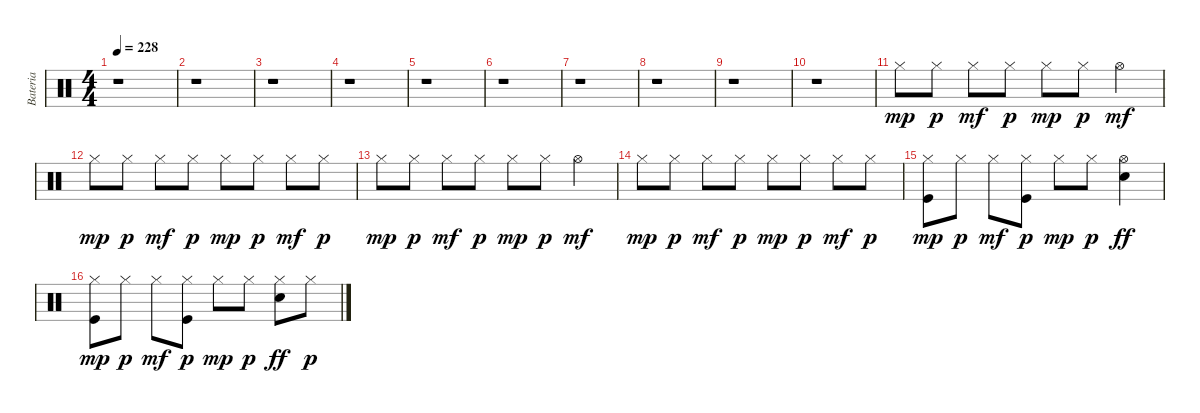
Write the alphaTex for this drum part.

\track ("Bateria" "Bateria") {instrument percussion}
\staff {score}
\articulation defaults
\ts (4 4)
\tempo 228
\clef neutral
\ks c
r.1{dy mp} |
r.1 |
r.1 |
r.1 |
r.1 |
r.1 |
r.1 |
r.1 |
r.1 |
r.1 |
"Hi-Hat (closed)".8{volume 12 balance 8} "Hi-Hat (closed)".8{dy p} "Hi-Hat (closed)".8{dy mf} "Hi-Hat (closed)".8{dy p} "Hi-Hat (closed)".8{dy mp} "Hi-Hat (closed)".8{dy p} "Hi-Hat (open)".4{dy mf} |
"Hi-Hat (closed)".8{dy mp} "Hi-Hat (closed)".8{dy p} "Hi-Hat (closed)".8{dy mf} "Hi-Hat (closed)".8{dy p} "Hi-Hat (closed)".8{dy mp} "Hi-Hat (closed)".8{dy p} "Hi-Hat (closed)".8{dy mf} "Hi-Hat (closed)".8{dy p} |
"Hi-Hat (closed)".8{dy mp} "Hi-Hat (closed)".8{dy p} "Hi-Hat (closed)".8{dy mf} "Hi-Hat (closed)".8{dy p} "Hi-Hat (closed)".8{dy mp} "Hi-Hat (closed)".8{dy p} "Hi-Hat (open)".4{dy mf} |
"Hi-Hat (closed)".8{dy mp} "Hi-Hat (closed)".8{dy p} "Hi-Hat (closed)".8{dy mf} "Hi-Hat (closed)".8{dy p} "Hi-Hat (closed)".8{dy mp} "Hi-Hat (closed)".8{dy p} "Hi-Hat (closed)".8{dy mf} "Hi-Hat (closed)".8{dy p} |
("Hi-Hat (closed)" "Kick (hit)").8{dy mp} "Hi-Hat (closed)".8{dy p} "Hi-Hat (closed)".8{dy mf} ("Hi-Hat (closed)" "Kick (hit)").8{dy p} "Hi-Hat (closed)".8{dy mp} "Hi-Hat (closed)".8{dy p} ("Hi-Hat (open)" "Electric Snare (hit)").4{dy ff} |
("Hi-Hat (closed)" "Kick (hit)").8{dy mp} "Hi-Hat (closed)".8{dy p} "Hi-Hat (closed)".8{dy mf} ("Hi-Hat (closed)" "Kick (hit)").8{dy p} "Hi-Hat (closed)".8{dy mp} "Hi-Hat (closed)".8{dy p} ("Hi-Hat (closed)" "Electric Snare (hit)").8{dy ff} "Hi-Hat (closed)".8{dy p}
